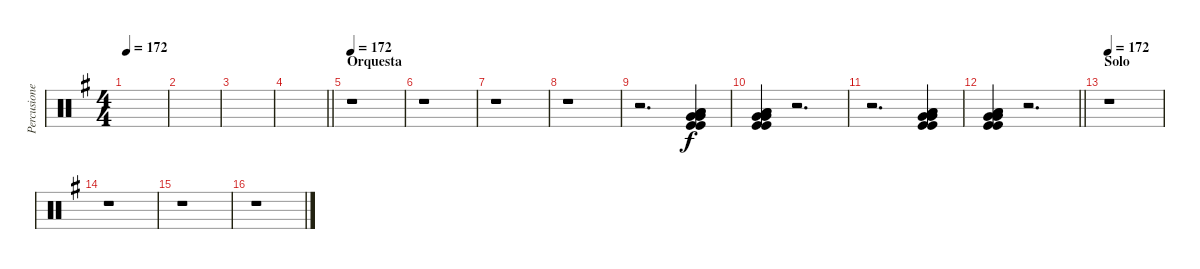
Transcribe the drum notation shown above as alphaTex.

\track ("Percusiones" "Percusione") {instrument percussion}
\staff {score}
\articulation defaults
\ts (4 4)
\tempo 172
\clef neutral
\ks eminor
|
|
|
\barLineRight lightlight
|
\section ("" "Orquesta")
\tempo 172
r.1 |
r.1 |
r.1 |
r.1 |
r.2{d} ("Low Floor Tom (hit)" "Low Floor Tom (hit)" "Kick (hit)" "Kick (hit)" "Very Low Tom (hit)" "Very Low Tom (hit)").4 |
("Low Floor Tom (hit)" "Low Floor Tom (hit)" "Kick (hit)" "Kick (hit)" "Very Low Tom (hit)" "Very Low Tom (hit)").4 r.2{d} |
r.2{d} ("Low Floor Tom (hit)" "Low Floor Tom (hit)" "Kick (hit)" "Kick (hit)" "Very Low Tom (hit)" "Very Low Tom (hit)").4 |
\barLineRight lightlight
("Low Floor Tom (hit)" "Low Floor Tom (hit)" "Kick (hit)" "Kick (hit)" "Very Low Tom (hit)" "Very Low Tom (hit)").4 r.2{d} |
\section ("" "Solo")
\tempo 172
r.1 |
r.1 |
r.1 |
r.1
